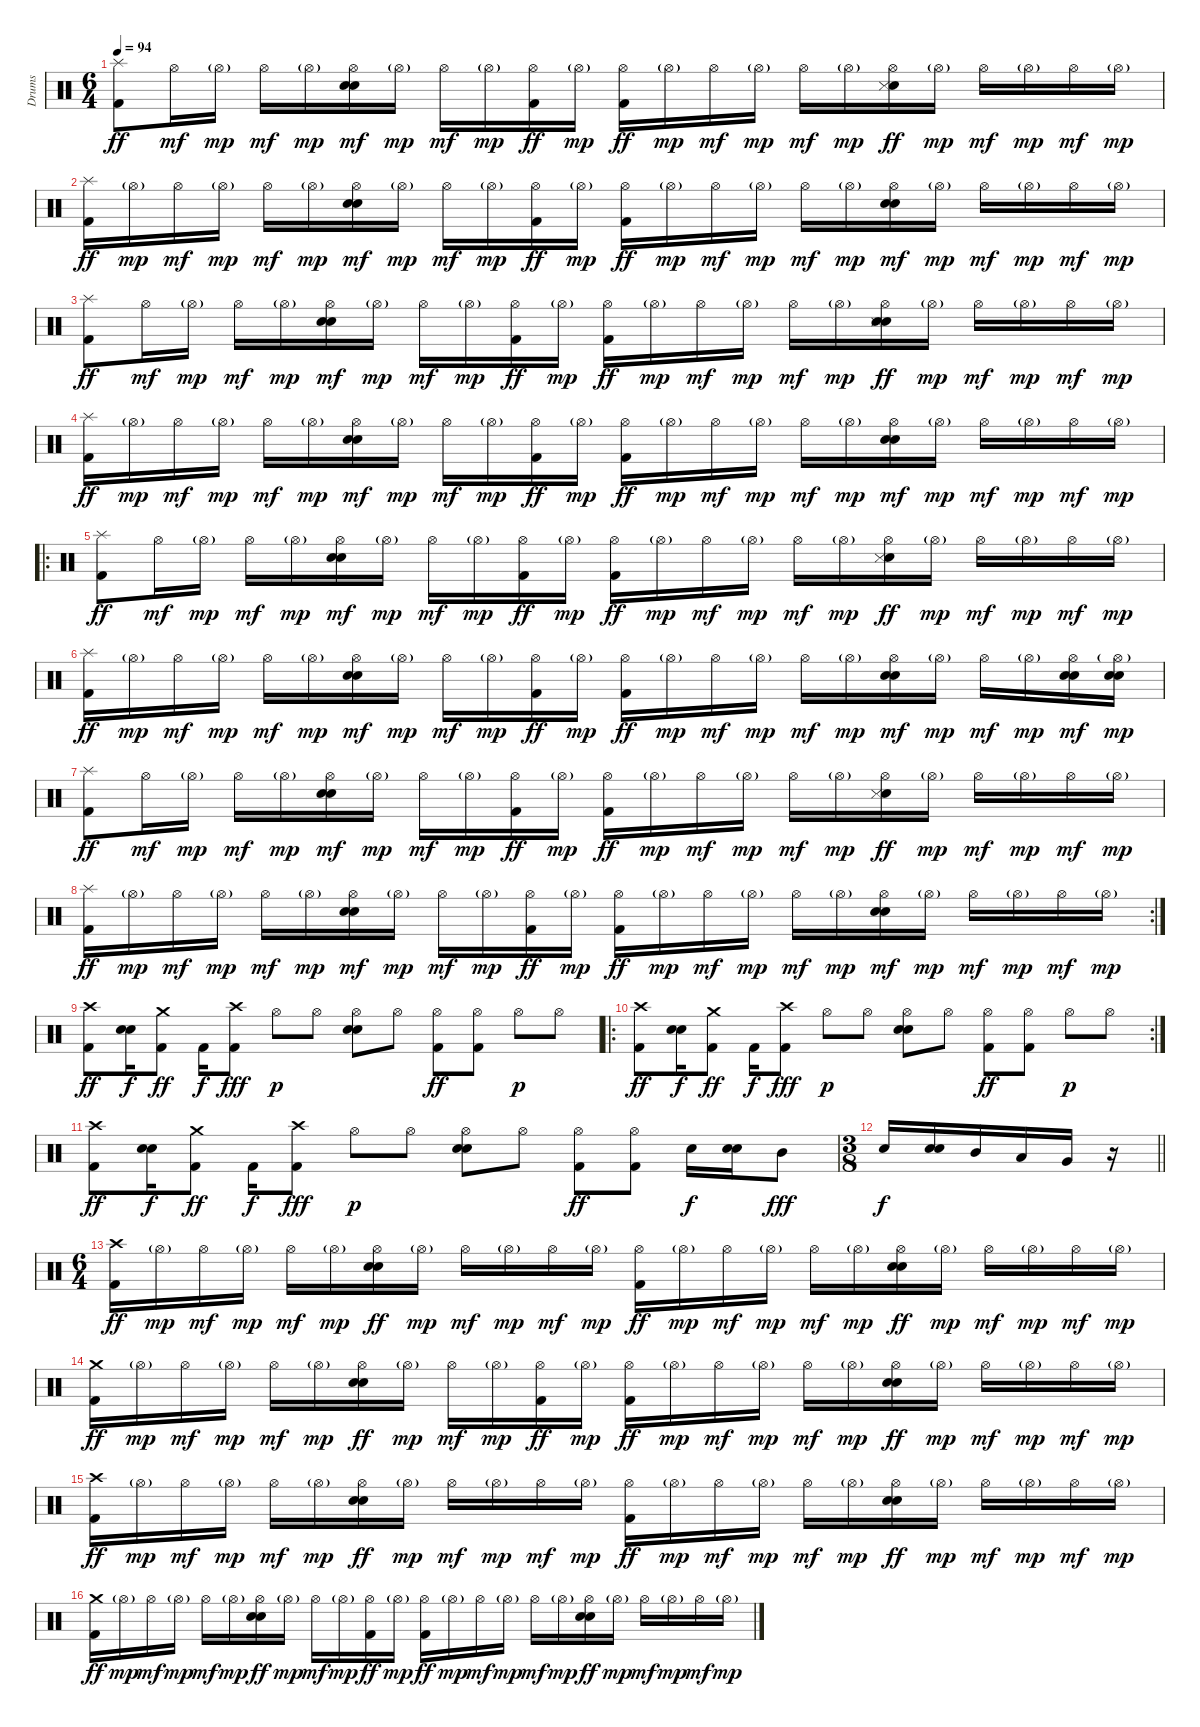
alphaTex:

\track ("Drums" "Drums") {instrument percussion}
\staff {score}
\articulation defaults
\ts (6 4)
\tempo 94
\clef neutral
\ks c
("Splash (hit)" "Kick (hit) 2").8{dy ff} "Hi-Hat (open)".16{dy mf} "Hi-Hat (open)"{g}.16{dy mp} "Hi-Hat (open)".16{dy mf} "Hi-Hat (open)"{g}.16{dy mp} ("Hi-Hat (open)" "Electric Snare (hit)" "Metronome (bell)").16{dy mf} "Hi-Hat (open)"{g}.16{dy mp} "Hi-Hat (open)".16{dy mf} "Hi-Hat (open)"{g}.16{dy mp} ("Hi-Hat (open)" "Kick (hit) 2").16{dy ff} "Hi-Hat (open)"{g}.16{dy mp} ("Hi-Hat (open)" "Kick (hit) 2").16{dy ff} "Hi-Hat (open)"{g}.16{dy mp} "Hi-Hat (open)".16{dy mf} "Hi-Hat (open)"{g}.16{dy mp} "Hi-Hat (open)".16{dy mf} "Hi-Hat (open)"{g}.16{dy mp} ("Hi-Hat (open)" "Electric Snare (hit)" "Metronome (hit)").16{dy ff} "Hi-Hat (open)"{g}.16{dy mp} "Hi-Hat (open)".16{dy mf} "Hi-Hat (open)"{g}.16{dy mp} "Hi-Hat (open)".16{dy mf} "Hi-Hat (open)"{g}.16{dy mp} |
("Splash (hit)" "Kick (hit) 2").16{dy ff} "Hi-Hat (open)"{g}.16{dy mp} "Hi-Hat (open)".16{dy mf} "Hi-Hat (open)"{g}.16{dy mp} "Hi-Hat (open)".16{dy mf} "Hi-Hat (open)"{g}.16{dy mp} ("Hi-Hat (open)" "Electric Snare (hit)" "Metronome (bell)").16{dy mf} "Hi-Hat (open)"{g}.16{dy mp} "Hi-Hat (open)".16{dy mf} "Hi-Hat (open)"{g}.16{dy mp} ("Hi-Hat (open)" "Kick (hit) 2").16{dy ff} "Hi-Hat (open)"{g}.16{dy mp} ("Hi-Hat (open)" "Kick (hit) 2").16{dy ff} "Hi-Hat (open)"{g}.16{dy mp} "Hi-Hat (open)".16{dy mf} "Hi-Hat (open)"{g}.16{dy mp} "Hi-Hat (open)".16{dy mf} "Hi-Hat (open)"{g}.16{dy mp} ("Hi-Hat (open)" "Electric Snare (hit)" "Metronome (bell)").16{dy mf} "Hi-Hat (open)"{g}.16{dy mp} "Hi-Hat (open)".16{dy mf} "Hi-Hat (open)"{g}.16{dy mp} "Hi-Hat (open)".16{dy mf} "Hi-Hat (open)"{g}.16{dy mp} |
("Splash (hit)" "Kick (hit) 2").8{dy ff} "Hi-Hat (open)".16{dy mf} "Hi-Hat (open)"{g}.16{dy mp} "Hi-Hat (open)".16{dy mf} "Hi-Hat (open)"{g}.16{dy mp} ("Hi-Hat (open)" "Electric Snare (hit)" "Metronome (bell)").16{dy mf} "Hi-Hat (open)"{g}.16{dy mp} "Hi-Hat (open)".16{dy mf} "Hi-Hat (open)"{g}.16{dy mp} ("Hi-Hat (open)" "Kick (hit) 2").16{dy ff} "Hi-Hat (open)"{g}.16{dy mp} ("Hi-Hat (open)" "Kick (hit) 2").16{dy ff} "Hi-Hat (open)"{g}.16{dy mp} "Hi-Hat (open)".16{dy mf} "Hi-Hat (open)"{g}.16{dy mp} "Hi-Hat (open)".16{dy mf} "Hi-Hat (open)"{g}.16{dy mp} ("Hi-Hat (open)" "Electric Snare (hit)" "Metronome (bell)" "Metronome (hit)").16{dy ff} "Hi-Hat (open)"{g}.16{dy mp} "Hi-Hat (open)".16{dy mf} "Hi-Hat (open)"{g}.16{dy mp} "Hi-Hat (open)".16{dy mf} "Hi-Hat (open)"{g}.16{dy mp} |
("Splash (hit)" "Kick (hit) 2").16{dy ff} "Hi-Hat (open)"{g}.16{dy mp} "Hi-Hat (open)".16{dy mf} "Hi-Hat (open)"{g}.16{dy mp} "Hi-Hat (open)".16{dy mf} "Hi-Hat (open)"{g}.16{dy mp} ("Hi-Hat (open)" "Electric Snare (hit)" "Metronome (bell)").16{dy mf} "Hi-Hat (open)"{g}.16{dy mp} "Hi-Hat (open)".16{dy mf} "Hi-Hat (open)"{g}.16{dy mp} ("Hi-Hat (open)" "Kick (hit) 2").16{dy ff} "Hi-Hat (open)"{g}.16{dy mp} ("Hi-Hat (open)" "Kick (hit) 2").16{dy ff} "Hi-Hat (open)"{g}.16{dy mp} "Hi-Hat (open)".16{dy mf} "Hi-Hat (open)"{g}.16{dy mp} "Hi-Hat (open)".16{dy mf} "Hi-Hat (open)"{g}.16{dy mp} ("Hi-Hat (open)" "Electric Snare (hit)" "Metronome (bell)").16{dy mf} "Hi-Hat (open)"{g}.16{dy mp} "Hi-Hat (open)".16{dy mf} "Hi-Hat (open)"{g}.16{dy mp} "Hi-Hat (open)".16{dy mf} "Hi-Hat (open)"{g}.16{dy mp} |
\ro
("Splash (hit)" "Kick (hit) 2").8{dy ff} "Hi-Hat (open)".16{dy mf} "Hi-Hat (open)"{g}.16{dy mp} "Hi-Hat (open)".16{dy mf} "Hi-Hat (open)"{g}.16{dy mp} ("Hi-Hat (open)" "Electric Snare (hit)" "Metronome (bell)").16{dy mf} "Hi-Hat (open)"{g}.16{dy mp} "Hi-Hat (open)".16{dy mf} "Hi-Hat (open)"{g}.16{dy mp} ("Hi-Hat (open)" "Kick (hit) 2").16{dy ff} "Hi-Hat (open)"{g}.16{dy mp} ("Hi-Hat (open)" "Kick (hit) 2").16{dy ff} "Hi-Hat (open)"{g}.16{dy mp} "Hi-Hat (open)".16{dy mf} "Hi-Hat (open)"{g}.16{dy mp} "Hi-Hat (open)".16{dy mf} "Hi-Hat (open)"{g}.16{dy mp} ("Hi-Hat (open)" "Electric Snare (hit)" "Metronome (hit)").16{dy ff} "Hi-Hat (open)"{g}.16{dy mp} "Hi-Hat (open)".16{dy mf} "Hi-Hat (open)"{g}.16{dy mp} "Hi-Hat (open)".16{dy mf} "Hi-Hat (open)"{g}.16{dy mp} |
("Splash (hit)" "Kick (hit) 2").16{dy ff} "Hi-Hat (open)"{g}.16{dy mp} "Hi-Hat (open)".16{dy mf} "Hi-Hat (open)"{g}.16{dy mp} "Hi-Hat (open)".16{dy mf} "Hi-Hat (open)"{g}.16{dy mp} ("Hi-Hat (open)" "Electric Snare (hit)" "Metronome (bell)").16{dy mf} "Hi-Hat (open)"{g}.16{dy mp} "Hi-Hat (open)".16{dy mf} "Hi-Hat (open)"{g}.16{dy mp} ("Hi-Hat (open)" "Kick (hit) 2").16{dy ff} "Hi-Hat (open)"{g}.16{dy mp} ("Hi-Hat (open)" "Kick (hit) 2").16{dy ff} "Hi-Hat (open)"{g}.16{dy mp} "Hi-Hat (open)".16{dy mf} "Hi-Hat (open)"{g}.16{dy mp} "Hi-Hat (open)".16{dy mf} "Hi-Hat (open)"{g}.16{dy mp} ("Hi-Hat (open)" "Electric Snare (hit)" "Metronome (bell)").16{dy mf} "Hi-Hat (open)"{g}.16{dy mp} "Hi-Hat (open)".16{dy mf} "Hi-Hat (open)"{g}.16{dy mp} ("Hi-Hat (open)" "Electric Snare (hit)" "Metronome (bell)").16{dy mf} ("Hi-Hat (open)"{g} "Electric Snare (hit)" "Metronome (bell)").16{dy mp} |
("Splash (hit)" "Kick (hit) 2").8{dy ff} "Hi-Hat (open)".16{dy mf} "Hi-Hat (open)"{g}.16{dy mp} "Hi-Hat (open)".16{dy mf} "Hi-Hat (open)"{g}.16{dy mp} ("Hi-Hat (open)" "Electric Snare (hit)" "Metronome (bell)").16{dy mf} "Hi-Hat (open)"{g}.16{dy mp} "Hi-Hat (open)".16{dy mf} "Hi-Hat (open)"{g}.16{dy mp} ("Hi-Hat (open)" "Kick (hit) 2").16{dy ff} "Hi-Hat (open)"{g}.16{dy mp} ("Hi-Hat (open)" "Kick (hit) 2").16{dy ff} "Hi-Hat (open)"{g}.16{dy mp} "Hi-Hat (open)".16{dy mf} "Hi-Hat (open)"{g}.16{dy mp} "Hi-Hat (open)".16{dy mf} "Hi-Hat (open)"{g}.16{dy mp} ("Hi-Hat (open)" "Electric Snare (hit)" "Metronome (hit)").16{dy ff} "Hi-Hat (open)"{g}.16{dy mp} "Hi-Hat (open)".16{dy mf} "Hi-Hat (open)"{g}.16{dy mp} "Hi-Hat (open)".16{dy mf} "Hi-Hat (open)"{g}.16{dy mp} |
\rc 2
("Splash (hit)" "Kick (hit) 2").16{dy ff} "Hi-Hat (open)"{g}.16{dy mp} "Hi-Hat (open)".16{dy mf} "Hi-Hat (open)"{g}.16{dy mp} "Hi-Hat (open)".16{dy mf} "Hi-Hat (open)"{g}.16{dy mp} ("Hi-Hat (open)" "Electric Snare (hit)" "Metronome (bell)").16{dy mf} "Hi-Hat (open)"{g}.16{dy mp} "Hi-Hat (open)".16{dy mf} "Hi-Hat (open)"{g}.16{dy mp} ("Hi-Hat (open)" "Kick (hit) 2").16{dy ff} "Hi-Hat (open)"{g}.16{dy mp} ("Hi-Hat (open)" "Kick (hit) 2").16{dy ff} "Hi-Hat (open)"{g}.16{dy mp} "Hi-Hat (open)".16{dy mf} "Hi-Hat (open)"{g}.16{dy mp} "Hi-Hat (open)".16{dy mf} "Hi-Hat (open)"{g}.16{dy mp} ("Hi-Hat (open)" "Electric Snare (hit)" "Metronome (bell)").16{dy mf} "Hi-Hat (open)"{g}.16{dy mp} "Hi-Hat (open)".16{dy mf} "Hi-Hat (open)"{g}.16{dy mp} "Hi-Hat (open)".16{dy mf} "Hi-Hat (open)"{g}.16{dy mp} |
("Crash high (hit)" "Kick (hit) 2").8{dy ff} ("Electric Snare (hit)" "Metronome (bell)").16{dy f} ("Crash medium (hit)" "Kick (hit) 2").8{dy ff} "Kick (hit) 2".16{dy f} ("Crash high (hit)" "Kick (hit) 2").8{dy fff} "Hi-Hat (open)".8{dy p} "Hi-Hat (open)".8 ("Hi-Hat (open)" "Electric Snare (hit)" "Metronome (bell)").8 "Hi-Hat (open)".8 ("Hi-Hat (open)" "Kick (hit) 2").8{dy ff} ("Hi-Hat (open)" "Kick (hit) 2").8 "Hi-Hat (open)".8{dy p} "Hi-Hat (open)".8 |
\ro
\rc 2
("Crash high (hit)" "Kick (hit) 2").8{dy ff} ("Electric Snare (hit)" "Metronome (bell)").16{dy f} ("Crash medium (hit)" "Kick (hit) 2").8{dy ff} "Kick (hit) 2".16{dy f} ("Crash high (hit)" "Kick (hit) 2").8{dy fff} "Hi-Hat (open)".8{dy p} "Hi-Hat (open)".8 ("Hi-Hat (open)" "Electric Snare (hit)" "Metronome (bell)").8 "Hi-Hat (open)".8 ("Hi-Hat (open)" "Kick (hit) 2").8{dy ff} ("Hi-Hat (open)" "Kick (hit) 2").8 "Hi-Hat (open)".8{dy p} "Hi-Hat (open)".8 |
("Crash high (hit)" "Kick (hit) 2").8{dy ff} ("Electric Snare (hit)" "Metronome (bell)").16{dy f} ("Crash medium (hit)" "Kick (hit) 2").8{dy ff} "Kick (hit) 2".16{dy f} ("Crash high (hit)" "Kick (hit) 2").8{dy fff} "Hi-Hat (open)".8{dy p} "Hi-Hat (open)".8 ("Hi-Hat (open)" "Electric Snare (hit)" "Metronome (bell)").8 "Hi-Hat (open)".8 ("Hi-Hat (open)" "Kick (hit) 2").8{dy ff} ("Hi-Hat (open)" "Kick (hit) 2").8 "Electric Snare (hit)".16{dy f} ("Electric Snare (hit)" "Metronome (bell)").16 "Mid Tom (hit)".8{dy fff} |
\ts (3 8)
\barLineRight lightlight "Electric Snare (hit)".16{dy f}
("Electric Snare (hit)" "Metronome (bell)").16 "Mid Tom (hit)".16 "Low Tom (hit)".16 "Very Low Tom (hit)".16 r.16 |
\ts (6 4)
("Crash high (hit)" "Kick (hit) 2").16{dy ff} "Hi-Hat (open)"{g}.16{dy mp} "Hi-Hat (open)".16{dy mf} "Hi-Hat (open)"{g}.16{dy mp} "Hi-Hat (open)".16{dy mf} "Hi-Hat (open)"{g}.16{dy mp} ("Hi-Hat (open)" "Electric Snare (hit)" "Metronome (bell)").16{dy ff} "Hi-Hat (open)"{g}.16{dy mp} "Hi-Hat (open)".16{dy mf} "Hi-Hat (open)"{g}.16{dy mp} "Hi-Hat (open)".16{dy mf} "Hi-Hat (open)"{g}.16{dy mp} ("Hi-Hat (open)" "Kick (hit) 2").16{dy ff} "Hi-Hat (open)"{g}.16{dy mp} "Hi-Hat (open)".16{dy mf} "Hi-Hat (open)"{g}.16{dy mp} "Hi-Hat (open)".16{dy mf} "Hi-Hat (open)"{g}.16{dy mp} ("Hi-Hat (open)" "Electric Snare (hit)" "Metronome (bell)").16{dy ff} "Hi-Hat (open)"{g}.16{dy mp} "Hi-Hat (open)".16{dy mf} "Hi-Hat (open)"{g}.16{dy mp} "Hi-Hat (open)".16{dy mf} "Hi-Hat (open)"{g}.16{dy mp} |
("Crash medium (hit)" "Kick (hit) 2").16{dy ff} "Hi-Hat (open)"{g}.16{dy mp} "Hi-Hat (open)".16{dy mf} "Hi-Hat (open)"{g}.16{dy mp} "Hi-Hat (open)".16{dy mf} "Hi-Hat (open)"{g}.16{dy mp} ("Hi-Hat (open)" "Electric Snare (hit)" "Metronome (bell)").16{dy ff} "Hi-Hat (open)"{g}.16{dy mp} "Hi-Hat (open)".16{dy mf} "Hi-Hat (open)"{g}.16{dy mp} ("Hi-Hat (open)" "Kick (hit) 2").16{dy ff} "Hi-Hat (open)"{g}.16{dy mp} ("Hi-Hat (open)" "Kick (hit) 2").16{dy ff} "Hi-Hat (open)"{g}.16{dy mp} "Hi-Hat (open)".16{dy mf} "Hi-Hat (open)"{g}.16{dy mp} "Hi-Hat (open)".16{dy mf} "Hi-Hat (open)"{g}.16{dy mp} ("Hi-Hat (open)" "Electric Snare (hit)" "Metronome (bell)").16{dy ff} "Hi-Hat (open)"{g}.16{dy mp} "Hi-Hat (open)".16{dy mf} "Hi-Hat (open)"{g}.16{dy mp} "Hi-Hat (open)".16{dy mf} "Hi-Hat (open)"{g}.16{dy mp} |
("Crash high (hit)" "Kick (hit) 2").16{dy ff} "Hi-Hat (open)"{g}.16{dy mp} "Hi-Hat (open)".16{dy mf} "Hi-Hat (open)"{g}.16{dy mp} "Hi-Hat (open)".16{dy mf} "Hi-Hat (open)"{g}.16{dy mp} ("Hi-Hat (open)" "Electric Snare (hit)" "Metronome (bell)").16{dy ff} "Hi-Hat (open)"{g}.16{dy mp} "Hi-Hat (open)".16{dy mf} "Hi-Hat (open)"{g}.16{dy mp} "Hi-Hat (open)".16{dy mf} "Hi-Hat (open)"{g}.16{dy mp} ("Hi-Hat (open)" "Kick (hit) 2").16{dy ff} "Hi-Hat (open)"{g}.16{dy mp} "Hi-Hat (open)".16{dy mf} "Hi-Hat (open)"{g}.16{dy mp} "Hi-Hat (open)".16{dy mf} "Hi-Hat (open)"{g}.16{dy mp} ("Hi-Hat (open)" "Electric Snare (hit)" "Metronome (bell)").16{dy ff} "Hi-Hat (open)"{g}.16{dy mp} "Hi-Hat (open)".16{dy mf} "Hi-Hat (open)"{g}.16{dy mp} "Hi-Hat (open)".16{dy mf} "Hi-Hat (open)"{g}.16{dy mp} |
("Crash medium (hit)" "Kick (hit) 2").16{dy ff} "Hi-Hat (open)"{g}.16{dy mp} "Hi-Hat (open)".16{dy mf} "Hi-Hat (open)"{g}.16{dy mp} "Hi-Hat (open)".16{dy mf} "Hi-Hat (open)"{g}.16{dy mp} ("Hi-Hat (open)" "Electric Snare (hit)" "Metronome (bell)").16{dy ff} "Hi-Hat (open)"{g}.16{dy mp} "Hi-Hat (open)".16{dy mf} "Hi-Hat (open)"{g}.16{dy mp} ("Hi-Hat (open)" "Kick (hit) 2").16{dy ff} "Hi-Hat (open)"{g}.16{dy mp} ("Hi-Hat (open)" "Kick (hit) 2").16{dy ff} "Hi-Hat (open)"{g}.16{dy mp} "Hi-Hat (open)".16{dy mf} "Hi-Hat (open)"{g}.16{dy mp} "Hi-Hat (open)".16{dy mf} "Hi-Hat (open)"{g}.16{dy mp} ("Hi-Hat (open)" "Electric Snare (hit)" "Metronome (bell)").16{dy ff} "Hi-Hat (open)"{g}.16{dy mp} "Hi-Hat (open)".16{dy mf} "Hi-Hat (open)"{g}.16{dy mp} "Hi-Hat (open)".16{dy mf} "Hi-Hat (open)"{g}.16{dy mp}
